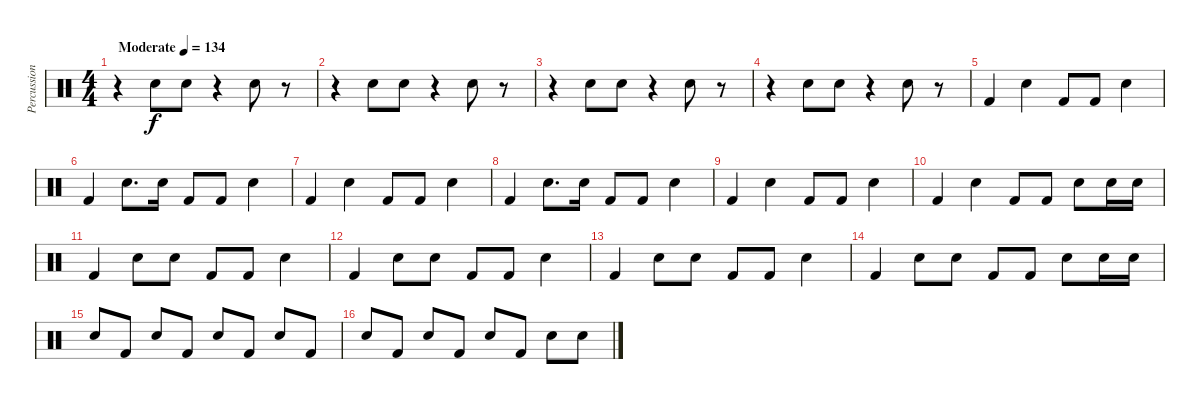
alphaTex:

\track ("Percussion" "Percussion") {instrument percussion}
\staff {score}
\articulation defaults
\ts (4 4)
\tempo (134 "Moderate")
\clef neutral
\ks c
r.4{dy f} "Hand Clap (hit)".8 "Hand Clap (hit)".8 r.4 "Hand Clap (hit)".8 r.8 |
r.4 "Hand Clap (hit)".8 "Hand Clap (hit)".8 r.4 "Hand Clap (hit)".8 r.8 |
r.4 "Hand Clap (hit)".8 "Hand Clap (hit)".8 r.4 "Hand Clap (hit)".8 r.8 |
r.4 "Hand Clap (hit)".8 "Hand Clap (hit)".8 r.4 "Hand Clap (hit)".8 r.8 |
"Kick (hit) 2".4 "Electric Snare (hit)".4 "Kick (hit) 2".8 "Kick (hit) 2".8 "Electric Snare (hit)".4 |
"Kick (hit) 2".4 "Electric Snare (hit)".8{d} "Electric Snare (hit)".16 "Kick (hit) 2".8 "Kick (hit) 2".8 "Electric Snare (hit)".4 |
"Kick (hit) 2".4 "Electric Snare (hit)".4 "Kick (hit) 2".8 "Kick (hit) 2".8 "Electric Snare (hit)".4 |
"Kick (hit) 2".4 "Electric Snare (hit)".8{d} "Electric Snare (hit)".16 "Kick (hit) 2".8 "Kick (hit) 2".8 "Electric Snare (hit)".4 |
"Kick (hit) 2".4 "Electric Snare (hit)".4 "Kick (hit) 2".8 "Kick (hit) 2".8 "Electric Snare (hit)".4 |
"Kick (hit) 2".4 "Electric Snare (hit)".4 "Kick (hit) 2".8 "Kick (hit) 2".8 "Electric Snare (hit)".8 "Electric Snare (hit)".16 "Electric Snare (hit)".16 |
"Kick (hit) 2".4 "Electric Snare (hit)".8 "Electric Snare (hit)".8 "Kick (hit) 2".8 "Kick (hit) 2".8 "Electric Snare (hit)".4 |
"Kick (hit) 2".4 "Electric Snare (hit)".8 "Electric Snare (hit)".8 "Kick (hit) 2".8 "Kick (hit) 2".8 "Electric Snare (hit)".4 |
"Kick (hit) 2".4 "Electric Snare (hit)".8 "Electric Snare (hit)".8 "Kick (hit) 2".8 "Kick (hit) 2".8 "Electric Snare (hit)".4 |
"Kick (hit) 2".4 "Electric Snare (hit)".8 "Electric Snare (hit)".8 "Kick (hit) 2".8 "Kick (hit) 2".8 "Electric Snare (hit)".8 "Electric Snare (hit)".16 "Electric Snare (hit)".16 |
"Electric Snare (hit)".8 "Kick (hit) 2".8 "Electric Snare (hit)".8 "Kick (hit) 2".8 "Electric Snare (hit)".8 "Kick (hit) 2".8 "Electric Snare (hit)".8 "Kick (hit) 2".8 |
"Electric Snare (hit)".8 "Kick (hit) 2".8 "Electric Snare (hit)".8 "Kick (hit) 2".8 "Electric Snare (hit)".8 "Kick (hit) 2".8 "Electric Snare (hit)".8 "Electric Snare (hit)".8
